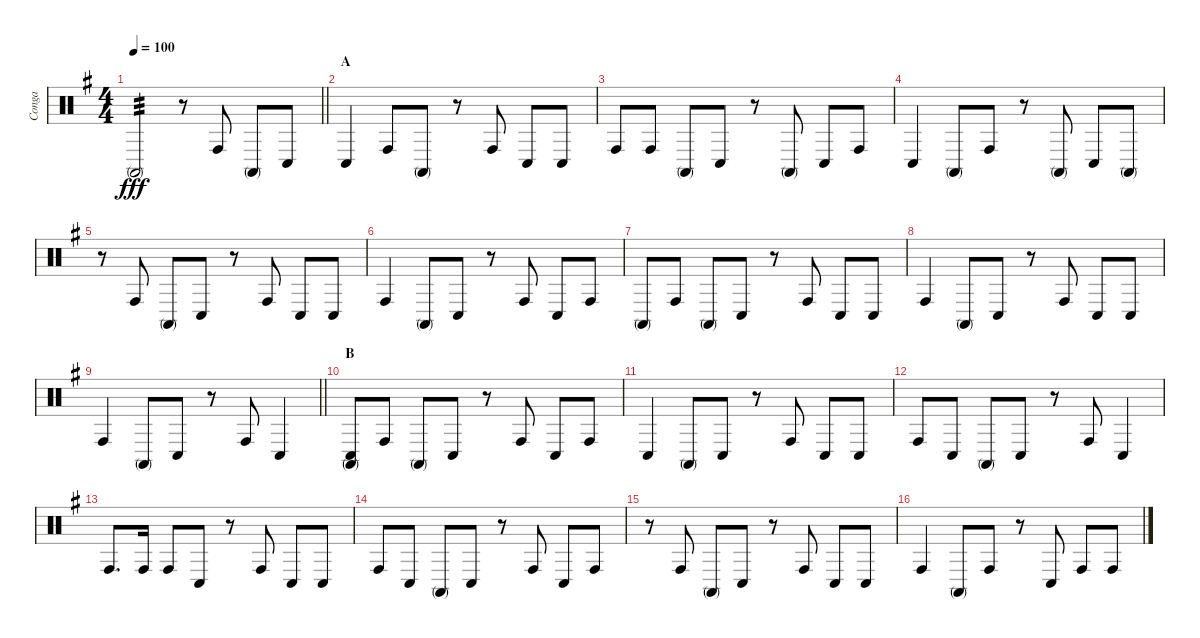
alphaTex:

\track ("Conga" "Conga") {instrument percussion}
\staff {score}
\articulation defaults
\ts (4 4)
\tempo 100
\clef neutral
\barLineRight lightlight
\ks g "Conga high (mute)".2{tp 3 dy fff}
r.8 "Conga high (hit)".8 "Conga high (mute)".8 "Conga low (hit)".8 |
\section ("" "A")
"Conga low (hit)".4 "Conga high (hit)".8 "Conga high (mute)".8 r.8 "Conga high (hit)".8 "Conga low (hit)".8 "Conga low (hit)".8 |
"Conga high (hit)".8 "Conga high (hit)".8 "Conga high (mute)".8 "Conga low (hit)".8 r.8 "Conga high (mute)".8 "Conga low (hit)".8 "Conga high (hit)".8 |
"Conga low (hit)".4 "Conga high (mute)".8 "Conga high (hit)".8 r.8 "Conga high (mute)".8 "Conga low (hit)".8 "Conga high (mute)".8 |
r.8 "Conga high (hit)".8 "Conga high (mute)".8 "Conga low (hit)".8 r.8 "Conga high (hit)".8 "Conga low (hit)".8 "Conga low (hit)".8 |
"Conga high (hit)".4 "Conga high (mute)".8 "Conga low (hit)".8 r.8 "Conga high (hit)".8 "Conga low (hit)".8 "Conga high (hit)".8 |
"Conga high (mute)".8 "Conga high (hit)".8 "Conga high (mute)".8 "Conga low (hit)".8 r.8 "Conga high (hit)".8 "Conga low (hit)".8 "Conga low (hit)".8 |
"Conga high (hit)".4 "Conga high (mute)".8 "Conga low (hit)".8 r.8 "Conga high (hit)".8 "Conga low (hit)".8 "Conga low (hit)".8 |
\barLineRight lightlight "Conga high (hit)".4 "Conga high (mute)".8 "Conga low (hit)".8
r.8 "Conga high (hit)".8 "Conga low (hit)".4 |
\section ("" "B")
("Conga high (mute)" "Conga low (hit)").8 "Conga high (hit)".8 "Conga high (mute)".8 "Conga low (hit)".8 r.8 "Conga high (hit)".8 "Conga low (hit)".8 "Conga high (hit)".8 |
"Conga low (hit)".4 "Conga high (mute)".8 "Conga low (hit)".8 r.8 "Conga high (hit)".8 "Conga low (hit)".8 "Conga low (hit)".8 |
"Conga high (hit)".8 "Conga low (hit)".8 "Conga high (mute)".8 "Conga low (hit)".8 r.8 "Conga high (hit)".8 "Conga low (hit)".4 |
"Conga high (hit)".8{d} "Conga high (hit)".16 "Conga high (hit)".8 "Conga low (hit)".8 r.8 "Conga high (hit)".8 "Conga low (hit)".8 "Conga low (hit)".8 |
"Conga high (hit)".8 "Conga low (hit)".8 "Conga high (mute)".8 "Conga low (hit)".8 r.8 "Conga high (hit)".8 "Conga low (hit)".8 "Conga high (hit)".8 |
r.8 "Conga high (hit)".8 "Conga high (mute)".8 "Conga low (hit)".8 r.8 "Conga high (hit)".8 "Conga low (hit)".8 "Conga low (hit)".8 |
"Conga high (hit)".4 "Conga high (mute)".8 "Conga high (hit)".8 r.8 "Conga low (hit)".8 "Conga high (hit)".8 "Conga high (hit)".8
